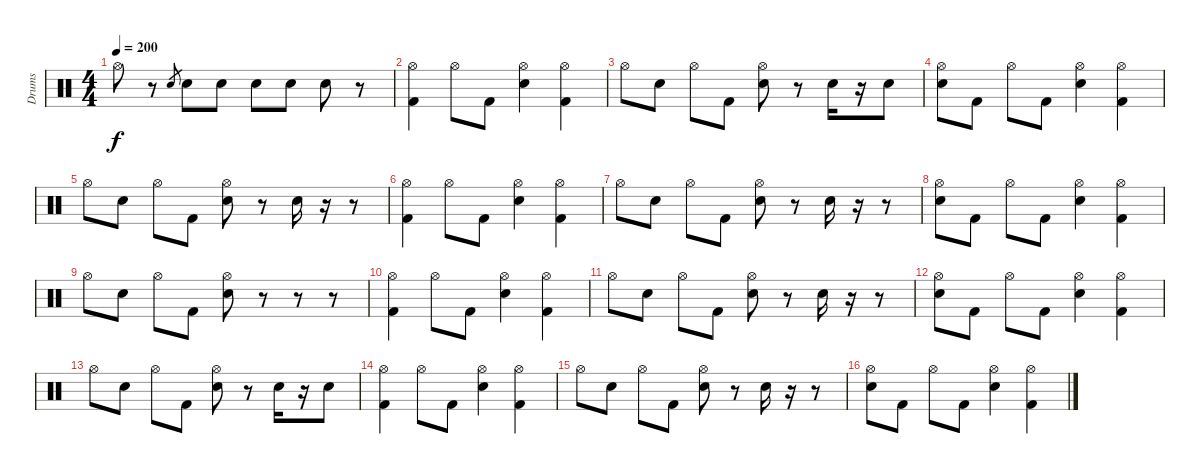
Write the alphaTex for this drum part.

\track ("Drums" "Drums") {instrument percussion}
\staff {score}
\articulation defaults
\ts (4 4)
\tempo 200
\clef neutral
\ks c "Hi-Hat (open)".8{dy f}
r.8 "Electric Snare (hit)".8{gr} "Electric Snare (hit)".8 "Electric Snare (hit)".8 "Electric Snare (hit)".8 "Electric Snare (hit)".8 "Electric Snare (hit)".8 r.8 |
("Hi-Hat (open)" "Kick (hit) 2").4 "Hi-Hat (open)".8 "Kick (hit) 2".8 ("Hi-Hat (open)" "Electric Snare (hit)").4 ("Hi-Hat (open)" "Kick (hit) 2").4 |
"Hi-Hat (open)".8 "Electric Snare (hit)".8 "Hi-Hat (open)".8 "Kick (hit) 2".8 ("Hi-Hat (open)" "Electric Snare (hit)").8 r.8 "Electric Snare (hit)".16 r.16 "Electric Snare (hit)".8 |
("Hi-Hat (open)" "Electric Snare (hit)").8 "Kick (hit) 2".8 "Hi-Hat (open)".8 "Kick (hit) 2".8 ("Hi-Hat (open)" "Electric Snare (hit)").4 ("Hi-Hat (open)" "Kick (hit) 2").4 |
"Hi-Hat (open)".8 "Electric Snare (hit)".8 "Hi-Hat (open)".8 "Kick (hit) 2".8 ("Hi-Hat (open)" "Electric Snare (hit)").8 r.8 "Electric Snare (hit)".16 r.16 r.8 |
("Hi-Hat (open)" "Kick (hit) 2").4 "Hi-Hat (open)".8 "Kick (hit) 2".8 ("Hi-Hat (open)" "Electric Snare (hit)").4 ("Hi-Hat (open)" "Kick (hit) 2").4 |
"Hi-Hat (open)".8 "Electric Snare (hit)".8 "Hi-Hat (open)".8 "Kick (hit) 2".8 ("Hi-Hat (open)" "Electric Snare (hit)").8 r.8 "Electric Snare (hit)".16 r.16 r.8 |
("Hi-Hat (open)" "Electric Snare (hit)").8 "Kick (hit) 2".8 "Hi-Hat (open)".8 "Kick (hit) 2".8 ("Hi-Hat (open)" "Electric Snare (hit)").4 ("Hi-Hat (open)" "Kick (hit) 2").4 |
"Hi-Hat (open)".8 "Electric Snare (hit)".8 "Hi-Hat (open)".8 "Kick (hit) 2".8 ("Hi-Hat (open)" "Electric Snare (hit)").8 r.8 r.8 r.8 |
("Hi-Hat (open)" "Kick (hit) 2").4 "Hi-Hat (open)".8 "Kick (hit) 2".8 ("Hi-Hat (open)" "Electric Snare (hit)").4 ("Hi-Hat (open)" "Kick (hit) 2").4 |
"Hi-Hat (open)".8 "Electric Snare (hit)".8 "Hi-Hat (open)".8 "Kick (hit) 2".8 ("Hi-Hat (open)" "Electric Snare (hit)").8 r.8 "Electric Snare (hit)".16 r.16 r.8 |
("Hi-Hat (open)" "Electric Snare (hit)").8 "Kick (hit) 2".8 "Hi-Hat (open)".8 "Kick (hit) 2".8 ("Hi-Hat (open)" "Electric Snare (hit)").4 ("Hi-Hat (open)" "Kick (hit) 2").4 |
"Hi-Hat (open)".8 "Electric Snare (hit)".8 "Hi-Hat (open)".8 "Kick (hit) 2".8 ("Hi-Hat (open)" "Electric Snare (hit)").8 r.8 "Electric Snare (hit)".16 r.16 "Electric Snare (hit)".8 |
("Hi-Hat (open)" "Kick (hit) 2").4 "Hi-Hat (open)".8 "Kick (hit) 2".8 ("Hi-Hat (open)" "Electric Snare (hit)").4 ("Hi-Hat (open)" "Kick (hit) 2").4 |
"Hi-Hat (open)".8 "Electric Snare (hit)".8 "Hi-Hat (open)".8 "Kick (hit) 2".8 ("Hi-Hat (open)" "Electric Snare (hit)").8 r.8 "Electric Snare (hit)".16 r.16 r.8 |
("Hi-Hat (open)" "Electric Snare (hit)").8 "Kick (hit) 2".8 "Hi-Hat (open)".8 "Kick (hit) 2".8 ("Hi-Hat (open)" "Electric Snare (hit)").4 ("Hi-Hat (open)" "Kick (hit) 2").4
